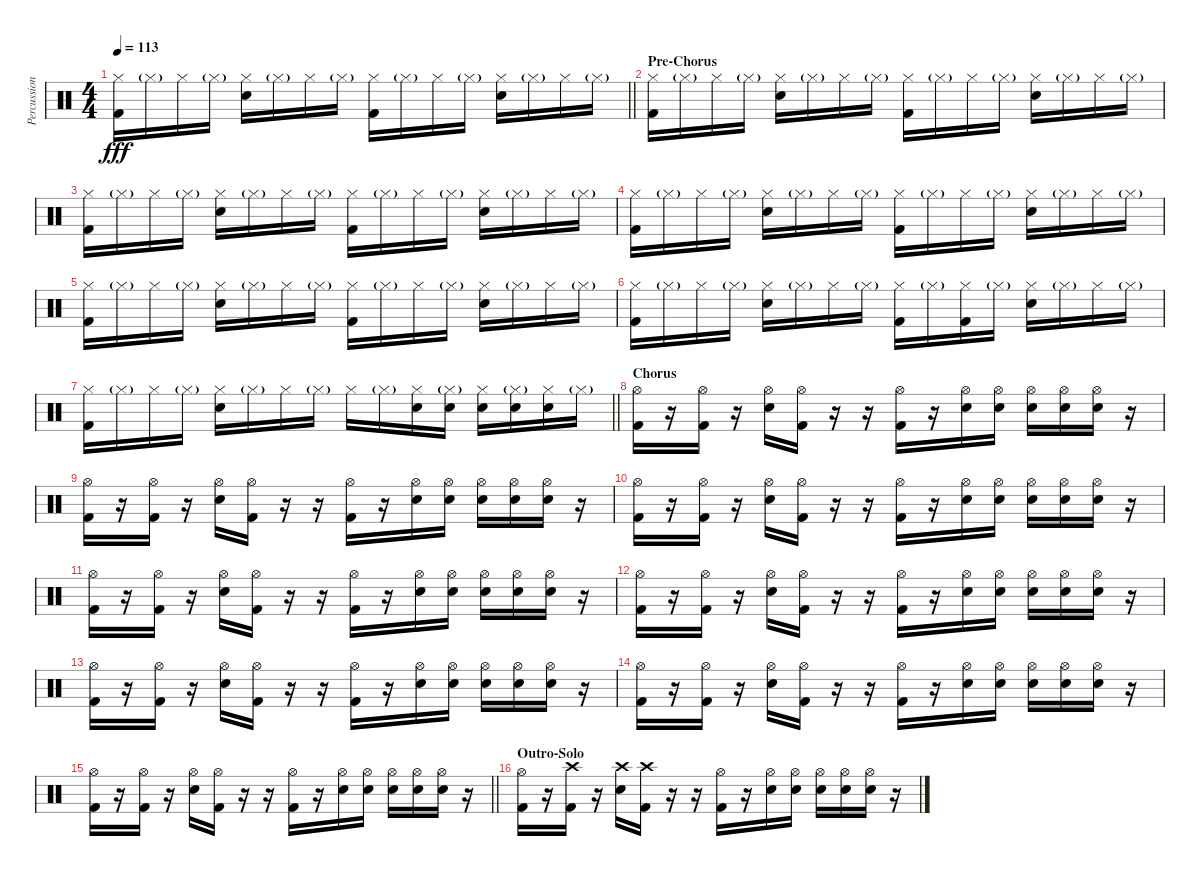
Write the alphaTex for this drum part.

\track ("Percussion" "Percussion") {instrument percussion}
\staff {score}
\articulation defaults
\ts (4 4)
\tempo 113
\clef neutral
\barLineRight lightlight
\ks c
("Hi-Hat (closed)" "Kick (hit) 2").16{dy fff} "Hi-Hat (closed)"{g}.16 "Hi-Hat (closed)".16 "Hi-Hat (closed)"{g}.16 ("Hi-Hat (closed)" "Electric Snare (hit)").16 "Hi-Hat (closed)"{g}.16 "Hi-Hat (closed)".16 "Hi-Hat (closed)"{g}.16 ("Hi-Hat (closed)" "Kick (hit) 2").16 "Hi-Hat (closed)"{g}.16 "Hi-Hat (closed)".16 "Hi-Hat (closed)"{g}.16 ("Hi-Hat (closed)" "Electric Snare (hit)").16 "Hi-Hat (closed)"{g}.16 "Hi-Hat (closed)".16 "Hi-Hat (closed)"{g}.16 |
\section ("" "Pre-Chorus")
("Hi-Hat (closed)" "Kick (hit) 2").16 "Hi-Hat (closed)"{g}.16 "Hi-Hat (closed)".16 "Hi-Hat (closed)"{g}.16 ("Hi-Hat (closed)" "Electric Snare (hit)").16 "Hi-Hat (closed)"{g}.16 "Hi-Hat (closed)".16 "Hi-Hat (closed)"{g}.16 ("Hi-Hat (closed)" "Kick (hit) 2").16 "Hi-Hat (closed)"{g}.16 "Hi-Hat (closed)".16 "Hi-Hat (closed)"{g}.16 ("Hi-Hat (closed)" "Electric Snare (hit)").16 "Hi-Hat (closed)"{g}.16 "Hi-Hat (closed)".16 "Hi-Hat (closed)"{g}.16 |
("Hi-Hat (closed)" "Kick (hit) 2").16 "Hi-Hat (closed)"{g}.16 "Hi-Hat (closed)".16 "Hi-Hat (closed)"{g}.16 ("Hi-Hat (closed)" "Electric Snare (hit)").16 "Hi-Hat (closed)"{g}.16 "Hi-Hat (closed)".16 "Hi-Hat (closed)"{g}.16 ("Hi-Hat (closed)" "Kick (hit) 2").16 "Hi-Hat (closed)"{g}.16 "Hi-Hat (closed)".16 "Hi-Hat (closed)"{g}.16 ("Hi-Hat (closed)" "Electric Snare (hit)").16 "Hi-Hat (closed)"{g}.16 "Hi-Hat (closed)".16 "Hi-Hat (closed)"{g}.16 |
("Hi-Hat (closed)" "Kick (hit) 2").16 "Hi-Hat (closed)"{g}.16 "Hi-Hat (closed)".16 "Hi-Hat (closed)"{g}.16 ("Hi-Hat (closed)" "Electric Snare (hit)").16 "Hi-Hat (closed)"{g}.16 "Hi-Hat (closed)".16 "Hi-Hat (closed)"{g}.16 ("Hi-Hat (closed)" "Kick (hit) 2").16 "Hi-Hat (closed)"{g}.16 "Hi-Hat (closed)".16 "Hi-Hat (closed)"{g}.16 ("Hi-Hat (closed)" "Electric Snare (hit)").16 "Hi-Hat (closed)"{g}.16 "Hi-Hat (closed)".16 "Hi-Hat (closed)"{g}.16 |
("Hi-Hat (closed)" "Kick (hit) 2").16 "Hi-Hat (closed)"{g}.16 "Hi-Hat (closed)".16 "Hi-Hat (closed)"{g}.16 ("Hi-Hat (closed)" "Electric Snare (hit)").16 "Hi-Hat (closed)"{g}.16 "Hi-Hat (closed)".16 "Hi-Hat (closed)"{g}.16 ("Hi-Hat (closed)" "Kick (hit) 2").16 "Hi-Hat (closed)"{g}.16 "Hi-Hat (closed)".16 "Hi-Hat (closed)"{g}.16 ("Hi-Hat (closed)" "Electric Snare (hit)").16 "Hi-Hat (closed)"{g}.16 "Hi-Hat (closed)".16 "Hi-Hat (closed)"{g}.16 |
("Hi-Hat (closed)" "Kick (hit) 2").16 "Hi-Hat (closed)"{g}.16 "Hi-Hat (closed)".16 "Hi-Hat (closed)"{g}.16 ("Hi-Hat (closed)" "Electric Snare (hit)").16 "Hi-Hat (closed)"{g}.16 "Hi-Hat (closed)".16 "Hi-Hat (closed)"{g}.16 ("Hi-Hat (closed)" "Kick (hit) 2").16 "Hi-Hat (closed)"{g}.16 ("Hi-Hat (closed)" "Kick (hit) 2").16 "Hi-Hat (closed)"{g}.16 ("Hi-Hat (closed)" "Electric Snare (hit)").16 "Hi-Hat (closed)"{g}.16 "Hi-Hat (closed)".16 "Hi-Hat (closed)"{g}.16 |
\barLineRight lightlight
("Hi-Hat (closed)" "Kick (hit) 2").16 "Hi-Hat (closed)"{g}.16 "Hi-Hat (closed)".16 "Hi-Hat (closed)"{g}.16 ("Hi-Hat (closed)" "Electric Snare (hit)").16 "Hi-Hat (closed)"{g}.16 "Hi-Hat (closed)".16 "Hi-Hat (closed)"{g}.16 "Hi-Hat (closed)".16 "Hi-Hat (closed)"{g}.16 ("Hi-Hat (closed)" "Electric Snare (hit)").16 ("Hi-Hat (closed)"{g} "Electric Snare (hit)").16 ("Hi-Hat (closed)" "Electric Snare (hit)").16 ("Hi-Hat (closed)"{g} "Electric Snare (hit)").16 ("Hi-Hat (closed)" "Electric Snare (hit)").16 "Hi-Hat (closed)"{g}.16 |
\section ("" "Chorus")
("Hi-Hat (open)" "Kick (hit) 2").16 r.16 ("Hi-Hat (open)" "Kick (hit) 2").16 r.16 ("Hi-Hat (open)" "Electric Snare (hit)").16 ("Hi-Hat (open)" "Kick (hit) 2").16 r.16 r.16 ("Hi-Hat (open)" "Kick (hit) 2").16 r.16 ("Hi-Hat (open)" "Electric Snare (hit)").16 ("Hi-Hat (open)" "Electric Snare (hit)").16 ("Hi-Hat (open)" "Electric Snare (hit)").16 ("Hi-Hat (open)" "Electric Snare (hit)").16 ("Hi-Hat (open)" "Electric Snare (hit)").16 r.16 |
("Hi-Hat (open)" "Kick (hit) 2").16 r.16 ("Hi-Hat (open)" "Kick (hit) 2").16 r.16 ("Hi-Hat (open)" "Electric Snare (hit)").16 ("Hi-Hat (open)" "Kick (hit) 2").16 r.16 r.16 ("Hi-Hat (open)" "Kick (hit) 2").16 r.16 ("Hi-Hat (open)" "Electric Snare (hit)").16 ("Hi-Hat (open)" "Electric Snare (hit)").16 ("Hi-Hat (open)" "Electric Snare (hit)").16 ("Hi-Hat (open)" "Electric Snare (hit)").16 ("Hi-Hat (open)" "Electric Snare (hit)").16 r.16 |
("Hi-Hat (open)" "Kick (hit) 2").16 r.16 ("Hi-Hat (open)" "Kick (hit) 2").16 r.16 ("Hi-Hat (open)" "Electric Snare (hit)").16 ("Hi-Hat (open)" "Kick (hit) 2").16 r.16 r.16 ("Hi-Hat (open)" "Kick (hit) 2").16 r.16 ("Hi-Hat (open)" "Electric Snare (hit)").16 ("Hi-Hat (open)" "Electric Snare (hit)").16 ("Hi-Hat (open)" "Electric Snare (hit)").16 ("Hi-Hat (open)" "Electric Snare (hit)").16 ("Hi-Hat (open)" "Electric Snare (hit)").16 r.16 |
("Hi-Hat (open)" "Kick (hit) 2").16 r.16 ("Hi-Hat (open)" "Kick (hit) 2").16 r.16 ("Hi-Hat (open)" "Electric Snare (hit)").16 ("Hi-Hat (open)" "Kick (hit) 2").16 r.16 r.16 ("Hi-Hat (open)" "Kick (hit) 2").16 r.16 ("Hi-Hat (open)" "Electric Snare (hit)").16 ("Hi-Hat (open)" "Electric Snare (hit)").16 ("Hi-Hat (open)" "Electric Snare (hit)").16 ("Hi-Hat (open)" "Electric Snare (hit)").16 ("Hi-Hat (open)" "Electric Snare (hit)").16 r.16 |
("Hi-Hat (open)" "Kick (hit) 2").16 r.16 ("Hi-Hat (open)" "Kick (hit) 2").16 r.16 ("Hi-Hat (open)" "Electric Snare (hit)").16 ("Hi-Hat (open)" "Kick (hit) 2").16 r.16 r.16 ("Hi-Hat (open)" "Kick (hit) 2").16 r.16 ("Hi-Hat (open)" "Electric Snare (hit)").16 ("Hi-Hat (open)" "Electric Snare (hit)").16 ("Hi-Hat (open)" "Electric Snare (hit)").16 ("Hi-Hat (open)" "Electric Snare (hit)").16 ("Hi-Hat (open)" "Electric Snare (hit)").16 r.16 |
("Hi-Hat (open)" "Kick (hit) 2").16 r.16 ("Hi-Hat (open)" "Kick (hit) 2").16 r.16 ("Hi-Hat (open)" "Electric Snare (hit)").16 ("Hi-Hat (open)" "Kick (hit) 2").16 r.16 r.16 ("Hi-Hat (open)" "Kick (hit) 2").16 r.16 ("Hi-Hat (open)" "Electric Snare (hit)").16 ("Hi-Hat (open)" "Electric Snare (hit)").16 ("Hi-Hat (open)" "Electric Snare (hit)").16 ("Hi-Hat (open)" "Electric Snare (hit)").16 ("Hi-Hat (open)" "Electric Snare (hit)").16 r.16 |
("Hi-Hat (open)" "Kick (hit) 2").16 r.16 ("Hi-Hat (open)" "Kick (hit) 2").16 r.16 ("Hi-Hat (open)" "Electric Snare (hit)").16 ("Hi-Hat (open)" "Kick (hit) 2").16 r.16 r.16 ("Hi-Hat (open)" "Kick (hit) 2").16 r.16 ("Hi-Hat (open)" "Electric Snare (hit)").16 ("Hi-Hat (open)" "Electric Snare (hit)").16 ("Hi-Hat (open)" "Electric Snare (hit)").16 ("Hi-Hat (open)" "Electric Snare (hit)").16 ("Hi-Hat (open)" "Electric Snare (hit)").16 r.16 |
\barLineRight lightlight
("Hi-Hat (open)" "Kick (hit) 2").16 r.16 ("Hi-Hat (open)" "Kick (hit) 2").16 r.16 ("Hi-Hat (open)" "Electric Snare (hit)").16 ("Hi-Hat (open)" "Kick (hit) 2").16 r.16 r.16 ("Hi-Hat (open)" "Kick (hit) 2").16 r.16 ("Hi-Hat (open)" "Electric Snare (hit)").16 ("Hi-Hat (open)" "Electric Snare (hit)").16 ("Hi-Hat (open)" "Electric Snare (hit)").16 ("Hi-Hat (open)" "Electric Snare (hit)").16 ("Hi-Hat (open)" "Electric Snare (hit)").16 r.16 |
\section ("" "Outro-Solo")
("Hi-Hat (open)" "Kick (hit) 2").16 r.16 ("Crash high (hit)" "Kick (hit) 2").16 r.16 ("Crash high (hit)" "Electric Snare (hit)").16 ("Crash high (hit)" "Kick (hit) 2").16 r.16 r.16 ("Hi-Hat (open)" "Kick (hit) 2").16 r.16 ("Hi-Hat (open)" "Electric Snare (hit)").16 ("Hi-Hat (open)" "Electric Snare (hit)").16 ("Hi-Hat (open)" "Electric Snare (hit)").16 ("Hi-Hat (open)" "Electric Snare (hit)").16 ("Hi-Hat (open)" "Electric Snare (hit)").16 r.16
